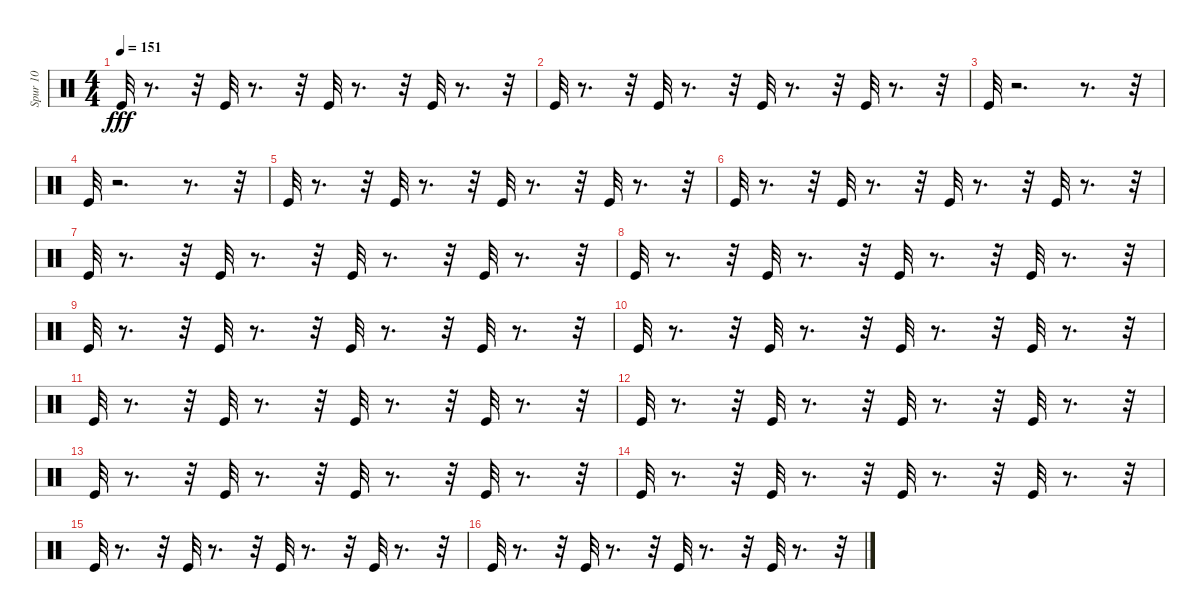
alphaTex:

\track ("Spur 10" "Spur 10") {instrument percussion}
\staff {score}
\articulation defaults
\ts (4 4)
\tempo 151
\clef neutral
\ks c "Kick (hit)".32{dy fff}
r.8{d} r.32 "Kick (hit)".32 r.8{d} r.32 "Kick (hit)".32 r.8{d} r.32 "Kick (hit)".32 r.8{d} r.32 |
"Kick (hit)".32 r.8{d} r.32 "Kick (hit)".32 r.8{d} r.32 "Kick (hit)".32 r.8{d} r.32 "Kick (hit)".32 r.8{d} r.32 |
"Kick (hit)".32 r.2{d} r.8{d} r.32 |
"Kick (hit)".32 r.2{d} r.8{d} r.32 |
"Kick (hit)".32 r.8{d} r.32 "Kick (hit)".32 r.8{d} r.32 "Kick (hit)".32 r.8{d} r.32 "Kick (hit)".32 r.8{d} r.32 |
"Kick (hit)".32 r.8{d} r.32 "Kick (hit)".32 r.8{d} r.32 "Kick (hit)".32 r.8{d} r.32 "Kick (hit)".32 r.8{d} r.32 |
"Kick (hit)".32 r.8{d} r.32 "Kick (hit)".32 r.8{d} r.32 "Kick (hit)".32 r.8{d} r.32 "Kick (hit)".32 r.8{d} r.32 |
"Kick (hit)".32 r.8{d} r.32 "Kick (hit)".32 r.8{d} r.32 "Kick (hit)".32 r.8{d} r.32 "Kick (hit)".32 r.8{d} r.32 |
"Kick (hit)".32 r.8{d} r.32 "Kick (hit)".32 r.8{d} r.32 "Kick (hit)".32 r.8{d} r.32 "Kick (hit)".32 r.8{d} r.32 |
"Kick (hit)".32 r.8{d} r.32 "Kick (hit)".32 r.8{d} r.32 "Kick (hit)".32 r.8{d} r.32 "Kick (hit)".32 r.8{d} r.32 |
"Kick (hit)".32 r.8{d} r.32 "Kick (hit)".32 r.8{d} r.32 "Kick (hit)".32 r.8{d} r.32 "Kick (hit)".32 r.8{d} r.32 |
"Kick (hit)".32 r.8{d} r.32 "Kick (hit)".32 r.8{d} r.32 "Kick (hit)".32 r.8{d} r.32 "Kick (hit)".32 r.8{d} r.32 |
"Kick (hit)".32 r.8{d} r.32 "Kick (hit)".32 r.8{d} r.32 "Kick (hit)".32 r.8{d} r.32 "Kick (hit)".32 r.8{d} r.32 |
"Kick (hit)".32 r.8{d} r.32 "Kick (hit)".32 r.8{d} r.32 "Kick (hit)".32 r.8{d} r.32 "Kick (hit)".32 r.8{d} r.32 |
"Kick (hit)".32 r.8{d} r.32 "Kick (hit)".32 r.8{d} r.32 "Kick (hit)".32 r.8{d} r.32 "Kick (hit)".32 r.8{d} r.32 |
"Kick (hit)".32 r.8{d} r.32 "Kick (hit)".32 r.8{d} r.32 "Kick (hit)".32 r.8{d} r.32 "Kick (hit)".32 r.8{d} r.32
